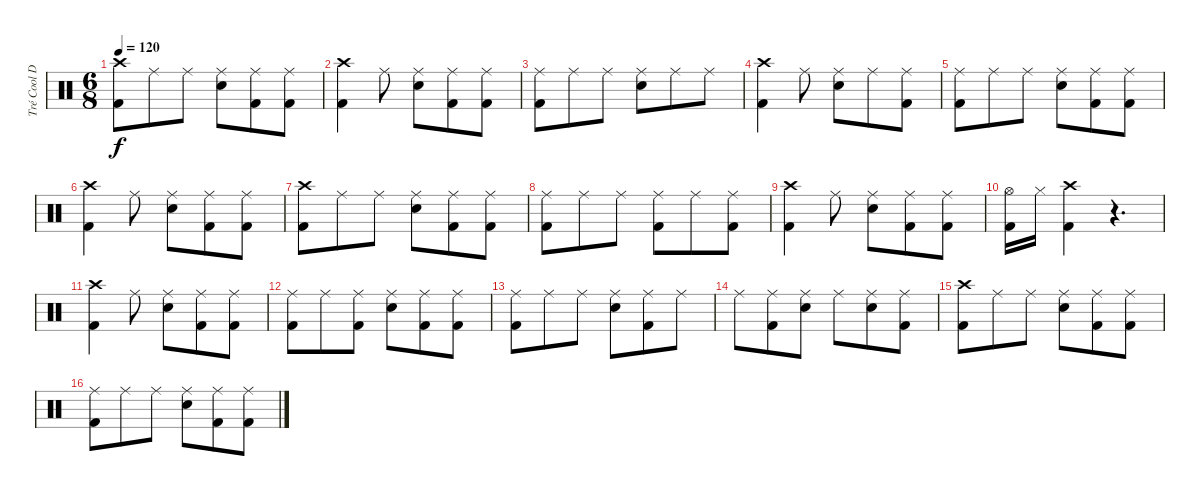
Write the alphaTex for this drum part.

\track ("Tré Cool Drums" "Tré Cool D") {instrument percussion}
\staff {score}
\articulation defaults
\ts (6 8)
\tempo 120
\clef neutral
\ks c
("Crash high (hit)" "Kick (hit) 2").8{dy f} "Ride (middle)".8 "Ride (middle)".8 ("Ride (middle)" "Snare (hit) 2").8 ("Ride (middle)" "Kick (hit) 2").8 ("Ride (middle)" "Kick (hit) 2").8 |
("Crash high (hit)" "Kick (hit) 2").4 "Ride (middle)".8 ("Ride (middle)" "Snare (hit) 2").8 ("Ride (middle)" "Kick (hit) 2").8 ("Ride (middle)" "Kick (hit) 2").8 |
("Ride (middle)" "Kick (hit) 2").8 "Ride (middle)".8 "Ride (middle)".8 ("Ride (middle)" "Snare (hit) 2").8 "Ride (middle)".8 "Ride (middle)".8 |
("Crash high (hit)" "Kick (hit) 2").4 "Ride (middle)".8 ("Ride (middle)" "Snare (hit) 2").8 "Ride (middle)".8 ("Ride (middle)" "Kick (hit) 2").8 |
("Ride (middle)" "Kick (hit) 2").8 "Ride (middle)".8 "Ride (middle)".8 ("Ride (middle)" "Snare (hit) 2").8 ("Ride (middle)" "Kick (hit) 2").8 ("Ride (middle)" "Kick (hit) 2").8 |
("Crash high (hit)" "Kick (hit) 2").4 "Ride (middle)".8 ("Ride (middle)" "Snare (hit) 2").8 ("Ride (middle)" "Kick (hit) 2").8 ("Ride (middle)" "Kick (hit) 2").8 |
("Crash high (hit)" "Kick (hit) 2").8 "Ride (middle)".8 "Ride (middle)".8 ("Ride (middle)" "Snare (hit) 2").8 ("Ride (middle)" "Kick (hit) 2").8 ("Ride (middle)" "Kick (hit) 2").8 |
("Ride (middle)" "Kick (hit) 2").8 "Ride (middle)".8 "Ride (middle)".8 ("Ride (middle)" "Kick (hit) 2").8 "Ride (middle)".8 ("Ride (middle)" "Kick (hit) 2").8 |
("Crash high (hit)" "Kick (hit) 2").4 "Ride (middle)".8 ("Ride (middle)" "Snare (hit) 2").8 ("Ride (middle)" "Kick (hit) 2").8 ("Ride (middle)" "Kick (hit) 2").8 |
("Hi-Hat (open)" "Kick (hit) 2").16 "Hi-Hat (closed)".16 ("Crash high (hit)" "Kick (hit) 2").4 r.4{d} |
("Crash high (hit)" "Kick (hit) 2").4 "Ride (middle)".8 ("Ride (middle)" "Snare (hit) 2").8 ("Ride (middle)" "Kick (hit) 2").8 ("Ride (middle)" "Kick (hit) 2").8 |
("Ride (middle)" "Kick (hit) 2").8 "Ride (middle)".8 ("Ride (middle)" "Kick (hit) 2").8 ("Ride (middle)" "Snare (hit) 2").8 ("Ride (middle)" "Kick (hit) 2").8 ("Ride (middle)" "Kick (hit) 2").8 |
("Ride (middle)" "Kick (hit) 2").8 "Ride (middle)".8 "Ride (middle)".8 ("Ride (middle)" "Snare (hit) 2").8 ("Ride (middle)" "Kick (hit) 2").8 "Ride (middle)".8 |
"Ride (middle)".8 ("Ride (middle)" "Kick (hit) 2").8 ("Ride (middle)" "Snare (hit) 2").8 "Ride (middle)".8 ("Ride (middle)" "Snare (hit) 2").8 ("Ride (middle)" "Kick (hit) 2").8 |
("Crash high (hit)" "Kick (hit) 2").8 "Ride (middle)".8 "Ride (middle)".8 ("Ride (middle)" "Snare (hit) 2").8 ("Ride (middle)" "Kick (hit) 2").8 ("Ride (middle)" "Kick (hit) 2").8 |
("Ride (middle)" "Kick (hit) 2").8 "Ride (middle)".8 "Ride (middle)".8 ("Ride (middle)" "Snare (hit) 2").8 ("Ride (middle)" "Kick (hit) 2").8 ("Ride (middle)" "Kick (hit) 2").8
